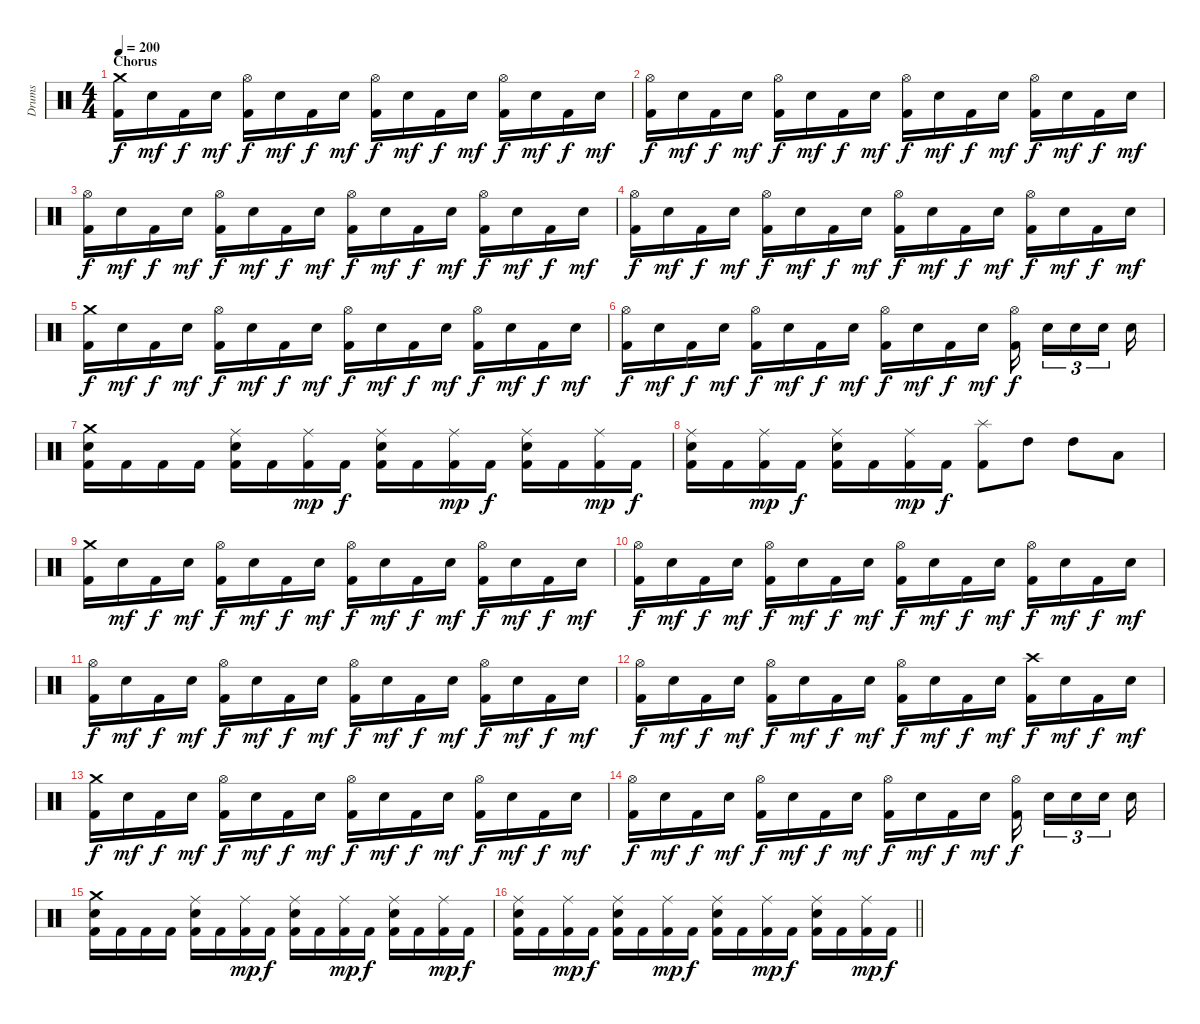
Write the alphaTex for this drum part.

\track ("Drums" "Drums") {instrument percussion}
\staff {score}
\articulation defaults
\ts (4 4)
\section ("" "Chorus")
\tempo 200
\clef neutral
\ks c
("Crash medium (hit)" "Kick (hit) 2").16{dy f} "Electric Snare (hit)".16{dy mf} "Kick (hit) 2".16{dy f} "Electric Snare (hit)".16{dy mf} ("Hi-Hat (open)" "Kick (hit) 2").16{dy f} "Electric Snare (hit)".16{dy mf} "Kick (hit) 2".16{dy f} "Electric Snare (hit)".16{dy mf} ("Hi-Hat (open)" "Kick (hit) 2").16{dy f} "Electric Snare (hit)".16{dy mf} "Kick (hit) 2".16{dy f} "Electric Snare (hit)".16{dy mf} ("Hi-Hat (open)" "Kick (hit) 2").16{dy f} "Electric Snare (hit)".16{dy mf} "Kick (hit) 2".16{dy f} "Electric Snare (hit)".16{dy mf} |
("Hi-Hat (open)" "Kick (hit) 2").16{dy f} "Electric Snare (hit)".16{dy mf} "Kick (hit) 2".16{dy f} "Electric Snare (hit)".16{dy mf} ("Hi-Hat (open)" "Kick (hit) 2").16{dy f} "Electric Snare (hit)".16{dy mf} "Kick (hit) 2".16{dy f} "Electric Snare (hit)".16{dy mf} ("Hi-Hat (open)" "Kick (hit) 2").16{dy f} "Electric Snare (hit)".16{dy mf} "Kick (hit) 2".16{dy f} "Electric Snare (hit)".16{dy mf} ("Hi-Hat (open)" "Kick (hit) 2").16{dy f} "Electric Snare (hit)".16{dy mf} "Kick (hit) 2".16{dy f} "Electric Snare (hit)".16{dy mf} |
("Hi-Hat (open)" "Kick (hit) 2").16{dy f} "Electric Snare (hit)".16{dy mf} "Kick (hit) 2".16{dy f} "Electric Snare (hit)".16{dy mf} ("Hi-Hat (open)" "Kick (hit) 2").16{dy f} "Electric Snare (hit)".16{dy mf} "Kick (hit) 2".16{dy f} "Electric Snare (hit)".16{dy mf} ("Hi-Hat (open)" "Kick (hit) 2").16{dy f} "Electric Snare (hit)".16{dy mf} "Kick (hit) 2".16{dy f} "Electric Snare (hit)".16{dy mf} ("Hi-Hat (open)" "Kick (hit) 2").16{dy f} "Electric Snare (hit)".16{dy mf} "Kick (hit) 2".16{dy f} "Electric Snare (hit)".16{dy mf} |
("Hi-Hat (open)" "Kick (hit) 2").16{dy f} "Electric Snare (hit)".16{dy mf} "Kick (hit) 2".16{dy f} "Electric Snare (hit)".16{dy mf} ("Hi-Hat (open)" "Kick (hit) 2").16{dy f} "Electric Snare (hit)".16{dy mf} "Kick (hit) 2".16{dy f} "Electric Snare (hit)".16{dy mf} ("Hi-Hat (open)" "Kick (hit) 2").16{dy f} "Electric Snare (hit)".16{dy mf} "Kick (hit) 2".16{dy f} "Electric Snare (hit)".16{dy mf} ("Hi-Hat (open)" "Kick (hit) 2").16{dy f} "Electric Snare (hit)".16{dy mf} "Kick (hit) 2".16{dy f} "Electric Snare (hit)".16{dy mf} |
("Crash medium (hit)" "Kick (hit) 2").16{dy f} "Electric Snare (hit)".16{dy mf} "Kick (hit) 2".16{dy f} "Electric Snare (hit)".16{dy mf} ("Hi-Hat (open)" "Kick (hit) 2").16{dy f} "Electric Snare (hit)".16{dy mf} "Kick (hit) 2".16{dy f} "Electric Snare (hit)".16{dy mf} ("Hi-Hat (open)" "Kick (hit) 2").16{dy f} "Electric Snare (hit)".16{dy mf} "Kick (hit) 2".16{dy f} "Electric Snare (hit)".16{dy mf} ("Hi-Hat (open)" "Kick (hit) 2").16{dy f} "Electric Snare (hit)".16{dy mf} "Kick (hit) 2".16{dy f} "Electric Snare (hit)".16{dy mf} |
("Hi-Hat (open)" "Kick (hit) 2").16{dy f} "Electric Snare (hit)".16{dy mf} "Kick (hit) 2".16{dy f} "Electric Snare (hit)".16{dy mf} ("Hi-Hat (open)" "Kick (hit) 2").16{dy f} "Electric Snare (hit)".16{dy mf} "Kick (hit) 2".16{dy f} "Electric Snare (hit)".16{dy mf} ("Hi-Hat (open)" "Kick (hit) 2").16{dy f} "Electric Snare (hit)".16{dy mf} "Kick (hit) 2".16{dy f} "Electric Snare (hit)".16{dy mf} ("Hi-Hat (open)" "Kick (hit) 2").16{dy f beam splitsecondary} "Electric Snare (hit)".16{tu (3 2)} "Electric Snare (hit)".16{tu (3 2)} "Electric Snare (hit)".16{tu (3 2) beam splitsecondary} "Electric Snare (hit)".16 |
("Crash medium (hit)" "Electric Snare (hit)" "Kick (hit) 2").16 "Kick (hit) 2".16 "Kick (hit) 2".16 "Kick (hit) 2".16 ("Ride (middle)" "Electric Snare (hit)" "Kick (hit) 2").16 "Kick (hit) 2".16 ("Ride (middle)" "Kick (hit) 2").16{dy mp} "Kick (hit) 2".16{dy f} ("Ride (middle)" "Electric Snare (hit)" "Kick (hit) 2").16 "Kick (hit) 2".16 ("Ride (middle)" "Kick (hit) 2").16{dy mp} "Kick (hit) 2".16{dy f} ("Ride (middle)" "Electric Snare (hit)" "Kick (hit) 2").16 "Kick (hit) 2".16 ("Ride (middle)" "Kick (hit) 2").16{dy mp} "Kick (hit) 2".16{dy f} |
("Ride (middle)" "Electric Snare (hit)" "Kick (hit) 2").16 "Kick (hit) 2".16 ("Ride (middle)" "Kick (hit) 2").16{dy mp} "Kick (hit) 2".16{dy f} ("Ride (middle)" "Electric Snare (hit)" "Kick (hit) 2").16 "Kick (hit) 2".16 ("Ride (middle)" "Kick (hit) 2").16{dy mp} "Kick (hit) 2".16{dy f} ("Splash (hit)" "Kick (hit) 2").8 "High Tom (hit)".8 "High Tom (hit)".8 "Low Tom (hit)".8 |
("Crash medium (hit)" "Kick (hit) 2").16 "Electric Snare (hit)".16{dy mf} "Kick (hit) 2".16{dy f} "Electric Snare (hit)".16{dy mf} ("Hi-Hat (open)" "Kick (hit) 2").16{dy f} "Electric Snare (hit)".16{dy mf} "Kick (hit) 2".16{dy f} "Electric Snare (hit)".16{dy mf} ("Hi-Hat (open)" "Kick (hit) 2").16{dy f} "Electric Snare (hit)".16{dy mf} "Kick (hit) 2".16{dy f} "Electric Snare (hit)".16{dy mf} ("Hi-Hat (open)" "Kick (hit) 2").16{dy f} "Electric Snare (hit)".16{dy mf} "Kick (hit) 2".16{dy f} "Electric Snare (hit)".16{dy mf} |
("Hi-Hat (open)" "Kick (hit) 2").16{dy f} "Electric Snare (hit)".16{dy mf} "Kick (hit) 2".16{dy f} "Electric Snare (hit)".16{dy mf} ("Hi-Hat (open)" "Kick (hit) 2").16{dy f} "Electric Snare (hit)".16{dy mf} "Kick (hit) 2".16{dy f} "Electric Snare (hit)".16{dy mf} ("Hi-Hat (open)" "Kick (hit) 2").16{dy f} "Electric Snare (hit)".16{dy mf} "Kick (hit) 2".16{dy f} "Electric Snare (hit)".16{dy mf} ("Hi-Hat (open)" "Kick (hit) 2").16{dy f} "Electric Snare (hit)".16{dy mf} "Kick (hit) 2".16{dy f} "Electric Snare (hit)".16{dy mf} |
("Hi-Hat (open)" "Kick (hit) 2").16{dy f} "Electric Snare (hit)".16{dy mf} "Kick (hit) 2".16{dy f} "Electric Snare (hit)".16{dy mf} ("Hi-Hat (open)" "Kick (hit) 2").16{dy f} "Electric Snare (hit)".16{dy mf} "Kick (hit) 2".16{dy f} "Electric Snare (hit)".16{dy mf} ("Hi-Hat (open)" "Kick (hit) 2").16{dy f} "Electric Snare (hit)".16{dy mf} "Kick (hit) 2".16{dy f} "Electric Snare (hit)".16{dy mf} ("Hi-Hat (open)" "Kick (hit) 2").16{dy f} "Electric Snare (hit)".16{dy mf} "Kick (hit) 2".16{dy f} "Electric Snare (hit)".16{dy mf} |
("Hi-Hat (open)" "Kick (hit) 2").16{dy f} "Electric Snare (hit)".16{dy mf} "Kick (hit) 2".16{dy f} "Electric Snare (hit)".16{dy mf} ("Hi-Hat (open)" "Kick (hit) 2").16{dy f} "Electric Snare (hit)".16{dy mf} "Kick (hit) 2".16{dy f} "Electric Snare (hit)".16{dy mf} ("Hi-Hat (open)" "Kick (hit) 2").16{dy f} "Electric Snare (hit)".16{dy mf} "Kick (hit) 2".16{dy f} "Electric Snare (hit)".16{dy mf} ("Crash high (hit)" "Kick (hit) 2").16{dy f} "Electric Snare (hit)".16{dy mf} "Kick (hit) 2".16{dy f} "Electric Snare (hit)".16{dy mf} |
("Crash medium (hit)" "Kick (hit) 2").16{dy f} "Electric Snare (hit)".16{dy mf} "Kick (hit) 2".16{dy f} "Electric Snare (hit)".16{dy mf} ("Hi-Hat (open)" "Kick (hit) 2").16{dy f} "Electric Snare (hit)".16{dy mf} "Kick (hit) 2".16{dy f} "Electric Snare (hit)".16{dy mf} ("Hi-Hat (open)" "Kick (hit) 2").16{dy f} "Electric Snare (hit)".16{dy mf} "Kick (hit) 2".16{dy f} "Electric Snare (hit)".16{dy mf} ("Hi-Hat (open)" "Kick (hit) 2").16{dy f} "Electric Snare (hit)".16{dy mf} "Kick (hit) 2".16{dy f} "Electric Snare (hit)".16{dy mf} |
("Hi-Hat (open)" "Kick (hit) 2").16{dy f} "Electric Snare (hit)".16{dy mf} "Kick (hit) 2".16{dy f} "Electric Snare (hit)".16{dy mf} ("Hi-Hat (open)" "Kick (hit) 2").16{dy f} "Electric Snare (hit)".16{dy mf} "Kick (hit) 2".16{dy f} "Electric Snare (hit)".16{dy mf} ("Hi-Hat (open)" "Kick (hit) 2").16{dy f} "Electric Snare (hit)".16{dy mf} "Kick (hit) 2".16{dy f} "Electric Snare (hit)".16{dy mf} ("Hi-Hat (open)" "Kick (hit) 2").16{dy f beam splitsecondary} "Electric Snare (hit)".16{tu (3 2)} "Electric Snare (hit)".16{tu (3 2)} "Electric Snare (hit)".16{tu (3 2) beam splitsecondary} "Electric Snare (hit)".16 |
("Crash medium (hit)" "Electric Snare (hit)" "Kick (hit) 2").16 "Kick (hit) 2".16 "Kick (hit) 2".16 "Kick (hit) 2".16 ("Ride (middle)" "Electric Snare (hit)" "Kick (hit) 2").16 "Kick (hit) 2".16 ("Ride (middle)" "Kick (hit) 2").16{dy mp} "Kick (hit) 2".16{dy f} ("Ride (middle)" "Electric Snare (hit)" "Kick (hit) 2").16 "Kick (hit) 2".16 ("Ride (middle)" "Kick (hit) 2").16{dy mp} "Kick (hit) 2".16{dy f} ("Ride (middle)" "Electric Snare (hit)" "Kick (hit) 2").16 "Kick (hit) 2".16 ("Ride (middle)" "Kick (hit) 2").16{dy mp} "Kick (hit) 2".16{dy f} |
\barLineRight lightlight
("Ride (middle)" "Electric Snare (hit)" "Kick (hit) 2").16 "Kick (hit) 2".16 ("Ride (middle)" "Kick (hit) 2").16{dy mp} "Kick (hit) 2".16{dy f} ("Ride (middle)" "Electric Snare (hit)" "Kick (hit) 2").16 "Kick (hit) 2".16 ("Ride (middle)" "Kick (hit) 2").16{dy mp} "Kick (hit) 2".16{dy f} ("Ride (middle)" "Electric Snare (hit)" "Kick (hit) 2").16 "Kick (hit) 2".16 ("Ride (middle)" "Kick (hit) 2").16{dy mp} "Kick (hit) 2".16{dy f} ("Ride (middle)" "Electric Snare (hit)" "Kick (hit) 2").16 "Kick (hit) 2".16 ("Ride (middle)" "Kick (hit) 2").16{dy mp} "Kick (hit) 2".16{dy f}
